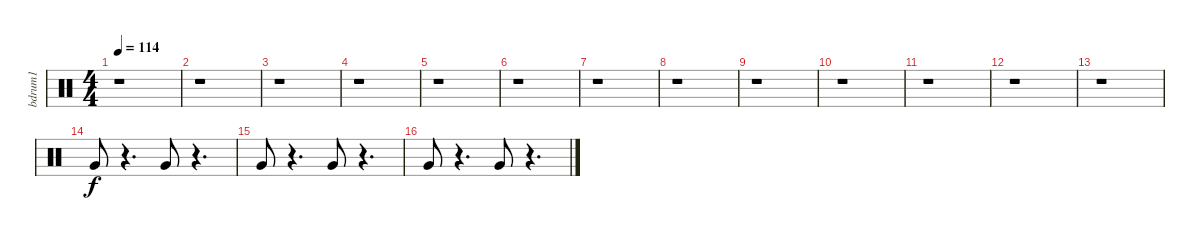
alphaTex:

\track ("bdrum1              " "bdrum1    ") {instrument percussion}
\staff {score}
\articulation defaults
\ts (4 4)
\tempo 114
\clef neutral
\ks c
r.1{dy f} |
r.1 |
r.1 |
r.1 |
r.1 |
r.1 |
r.1 |
r.1 |
r.1 |
r.1 |
r.1 |
r.1 |
r.1 |
"Very Low Tom (hit)".8 r.4{d} "Very Low Tom (hit)".8 r.4{d} |
"Very Low Tom (hit)".8 r.4{d} "Very Low Tom (hit)".8 r.4{d} |
"Very Low Tom (hit)".8 r.4{d} "Very Low Tom (hit)".8 r.4{d}
